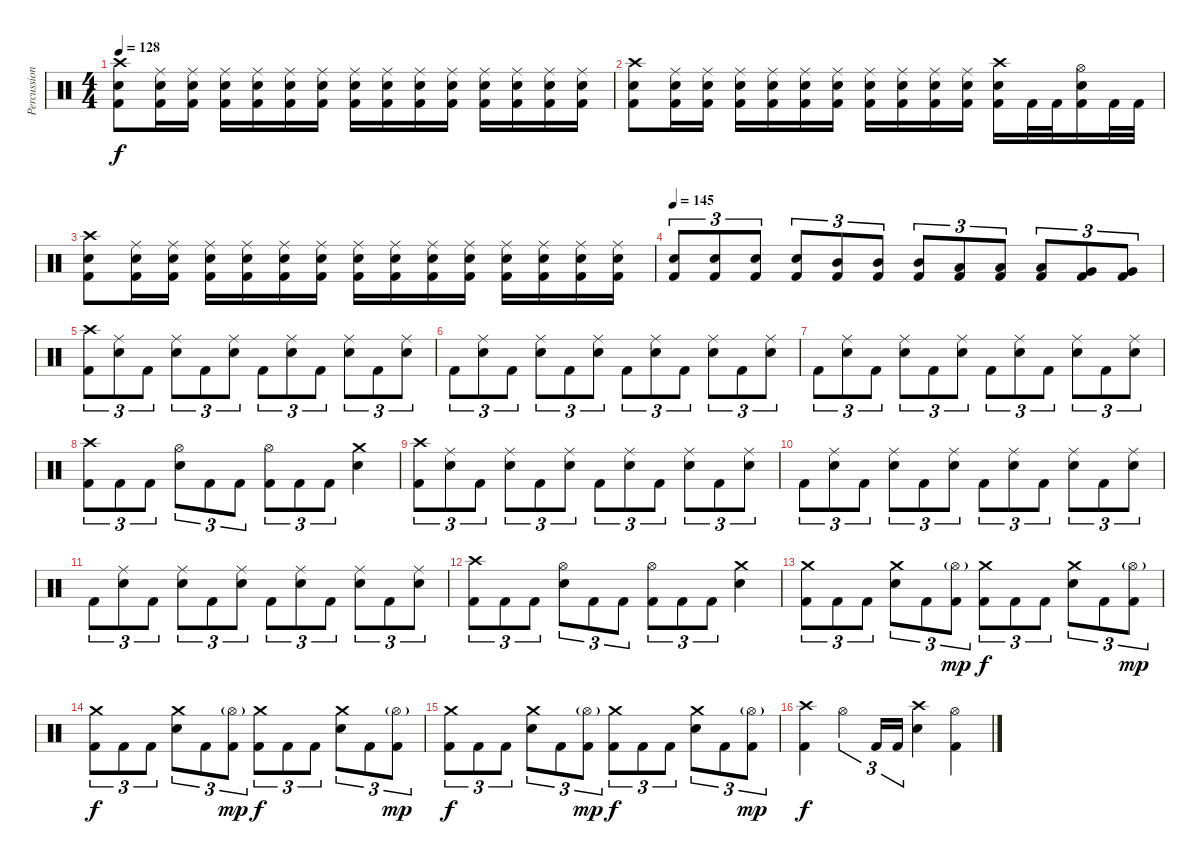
\track ("Percussion" "Percussion") {instrument percussion}
\staff {score}
\articulation defaults
\ts (4 4)
\tempo 128
\clef neutral
\ks c
("Crash high (hit)" "Electric Snare (hit)" "Kick (hit) 2").8{dy f} ("Ride (middle)" "Electric Snare (hit)" "Kick (hit) 2").16 ("Ride (middle)" "Electric Snare (hit)" "Kick (hit) 2").16 ("Ride (middle)" "Electric Snare (hit)" "Kick (hit) 2").16 ("Ride (middle)" "Electric Snare (hit)" "Kick (hit) 2").16 ("Ride (middle)" "Electric Snare (hit)" "Kick (hit) 2").16 ("Ride (middle)" "Electric Snare (hit)" "Kick (hit) 2").16 ("Ride (middle)" "Electric Snare (hit)" "Kick (hit) 2").16 ("Ride (middle)" "Electric Snare (hit)" "Kick (hit) 2").16 ("Ride (middle)" "Electric Snare (hit)" "Kick (hit) 2").16 ("Ride (middle)" "Electric Snare (hit)" "Kick (hit) 2").16 ("Ride (middle)" "Electric Snare (hit)" "Kick (hit) 2").16 ("Ride (middle)" "Electric Snare (hit)" "Kick (hit) 2").16 ("Ride (middle)" "Electric Snare (hit)" "Kick (hit) 2").16 ("Ride (middle)" "Electric Snare (hit)" "Kick (hit) 2").16 |
("Crash high (hit)" "Electric Snare (hit)" "Kick (hit) 2").8 ("Ride (middle)" "Electric Snare (hit)" "Kick (hit) 2").16 ("Ride (middle)" "Electric Snare (hit)" "Kick (hit) 2").16 ("Ride (middle)" "Electric Snare (hit)" "Kick (hit) 2").16 ("Ride (middle)" "Electric Snare (hit)" "Kick (hit) 2").16 ("Ride (middle)" "Electric Snare (hit)" "Kick (hit) 2").16 ("Ride (middle)" "Electric Snare (hit)" "Kick (hit) 2").16 ("Ride (middle)" "Electric Snare (hit)" "Kick (hit) 2").16 ("Ride (middle)" "Electric Snare (hit)" "Kick (hit) 2").16 ("Ride (middle)" "Electric Snare (hit)" "Kick (hit) 2").16 ("Ride (middle)" "Electric Snare (hit)" "Kick (hit) 2").16 ("Crash high (hit)" "Electric Snare (hit)" "Kick (hit) 2").16 "Kick (hit) 2".32 "Kick (hit) 2".32 ("Hi-Hat (open)" "Electric Snare (hit)" "Kick (hit) 2").16 "Kick (hit) 2".32 "Kick (hit) 2".32 |
("Crash high (hit)" "Electric Snare (hit)" "Kick (hit) 2").8 ("Ride (middle)" "Electric Snare (hit)" "Kick (hit) 2").16 ("Ride (middle)" "Electric Snare (hit)" "Kick (hit) 2").16 ("Ride (middle)" "Electric Snare (hit)" "Kick (hit) 2").16 ("Ride (middle)" "Electric Snare (hit)" "Kick (hit) 2").16 ("Ride (middle)" "Electric Snare (hit)" "Kick (hit) 2").16 ("Ride (middle)" "Electric Snare (hit)" "Kick (hit) 2").16 ("Ride (middle)" "Electric Snare (hit)" "Kick (hit) 2").16 ("Ride (middle)" "Electric Snare (hit)" "Kick (hit) 2").16 ("Ride (middle)" "Electric Snare (hit)" "Kick (hit) 2").16 ("Ride (middle)" "Electric Snare (hit)" "Kick (hit) 2").16 ("Ride (middle)" "Electric Snare (hit)" "Kick (hit) 2").16 ("Ride (middle)" "Electric Snare (hit)" "Kick (hit) 2").16 ("Ride (middle)" "Electric Snare (hit)" "Kick (hit) 2").16 ("Ride (middle)" "Electric Snare (hit)" "Kick (hit) 2").16 |
\tempo 145
("Electric Snare (hit)" "Kick (hit) 2").8{tu (3 2)} ("Electric Snare (hit)" "Kick (hit) 2").8{tu (3 2)} ("Electric Snare (hit)" "Kick (hit) 2").8{tu (3 2)} ("Electric Snare (hit)" "Kick (hit) 2").8{tu (3 2)} ("Mid Tom (hit)" "Kick (hit) 2").8{tu (3 2)} ("Mid Tom (hit)" "Kick (hit) 2").8{tu (3 2)} ("Mid Tom (hit)" "Kick (hit) 2").8{tu (3 2)} ("Low Tom (hit)" "Kick (hit) 2").8{tu (3 2)} ("Low Tom (hit)" "Kick (hit) 2").8{tu (3 2)} ("Low Tom (hit)" "Kick (hit) 2").8{tu (3 2)} ("Very Low Tom (hit)" "Kick (hit) 2").8{tu (3 2)} ("Very Low Tom (hit)" "Kick (hit) 2").8{tu (3 2)} |
("Crash high (hit)" "Kick (hit) 2").8{tu (3 2)} ("Ride (middle)" "Electric Snare (hit)").8{tu (3 2)} "Kick (hit) 2".8{tu (3 2)} ("Ride (middle)" "Electric Snare (hit)").8{tu (3 2)} "Kick (hit) 2".8{tu (3 2)} ("Ride (middle)" "Electric Snare (hit)").8{tu (3 2)} "Kick (hit) 2".8{tu (3 2)} ("Ride (middle)" "Electric Snare (hit)").8{tu (3 2)} "Kick (hit) 2".8{tu (3 2)} ("Ride (middle)" "Electric Snare (hit)").8{tu (3 2)} "Kick (hit) 2".8{tu (3 2)} ("Ride (middle)" "Electric Snare (hit)").8{tu (3 2)} |
"Kick (hit) 2".8{tu (3 2)} ("Ride (middle)" "Electric Snare (hit)").8{tu (3 2)} "Kick (hit) 2".8{tu (3 2)} ("Ride (middle)" "Electric Snare (hit)").8{tu (3 2)} "Kick (hit) 2".8{tu (3 2)} ("Ride (middle)" "Electric Snare (hit)").8{tu (3 2)} "Kick (hit) 2".8{tu (3 2)} ("Ride (middle)" "Electric Snare (hit)").8{tu (3 2)} "Kick (hit) 2".8{tu (3 2)} ("Ride (middle)" "Electric Snare (hit)").8{tu (3 2)} "Kick (hit) 2".8{tu (3 2)} ("Ride (middle)" "Electric Snare (hit)").8{tu (3 2)} |
"Kick (hit) 2".8{tu (3 2)} ("Ride (middle)" "Electric Snare (hit)").8{tu (3 2)} "Kick (hit) 2".8{tu (3 2)} ("Ride (middle)" "Electric Snare (hit)").8{tu (3 2)} "Kick (hit) 2".8{tu (3 2)} ("Ride (middle)" "Electric Snare (hit)").8{tu (3 2)} "Kick (hit) 2".8{tu (3 2)} ("Ride (middle)" "Electric Snare (hit)").8{tu (3 2)} "Kick (hit) 2".8{tu (3 2)} ("Ride (middle)" "Electric Snare (hit)").8{tu (3 2)} "Kick (hit) 2".8{tu (3 2)} ("Ride (middle)" "Electric Snare (hit)").8{tu (3 2)} |
("Crash high (hit)" "Kick (hit) 2").8{tu (3 2)} "Kick (hit) 2".8{tu (3 2)} "Kick (hit) 2".8{tu (3 2)} ("Hi-Hat (open)" "Electric Snare (hit)").8{tu (3 2)} "Kick (hit) 2".8{tu (3 2)} "Kick (hit) 2".8{tu (3 2)} ("Hi-Hat (open)" "Kick (hit) 2").8{tu (3 2)} "Kick (hit) 2".8{tu (3 2)} "Kick (hit) 2".8{tu (3 2)} ("Crash medium (hit)" "Electric Snare (hit)").4 |
("Crash high (hit)" "Kick (hit) 2").8{tu (3 2)} ("Ride (middle)" "Electric Snare (hit)").8{tu (3 2)} "Kick (hit) 2".8{tu (3 2)} ("Ride (middle)" "Electric Snare (hit)").8{tu (3 2)} "Kick (hit) 2".8{tu (3 2)} ("Ride (middle)" "Electric Snare (hit)").8{tu (3 2)} "Kick (hit) 2".8{tu (3 2)} ("Ride (middle)" "Electric Snare (hit)").8{tu (3 2)} "Kick (hit) 2".8{tu (3 2)} ("Ride (middle)" "Electric Snare (hit)").8{tu (3 2)} "Kick (hit) 2".8{tu (3 2)} ("Ride (middle)" "Electric Snare (hit)").8{tu (3 2)} |
"Kick (hit) 2".8{tu (3 2)} ("Ride (middle)" "Electric Snare (hit)").8{tu (3 2)} "Kick (hit) 2".8{tu (3 2)} ("Ride (middle)" "Electric Snare (hit)").8{tu (3 2)} "Kick (hit) 2".8{tu (3 2)} ("Ride (middle)" "Electric Snare (hit)").8{tu (3 2)} "Kick (hit) 2".8{tu (3 2)} ("Ride (middle)" "Electric Snare (hit)").8{tu (3 2)} "Kick (hit) 2".8{tu (3 2)} ("Ride (middle)" "Electric Snare (hit)").8{tu (3 2)} "Kick (hit) 2".8{tu (3 2)} ("Ride (middle)" "Electric Snare (hit)").8{tu (3 2)} |
"Kick (hit) 2".8{tu (3 2)} ("Ride (middle)" "Electric Snare (hit)").8{tu (3 2)} "Kick (hit) 2".8{tu (3 2)} ("Ride (middle)" "Electric Snare (hit)").8{tu (3 2)} "Kick (hit) 2".8{tu (3 2)} ("Ride (middle)" "Electric Snare (hit)").8{tu (3 2)} "Kick (hit) 2".8{tu (3 2)} ("Ride (middle)" "Electric Snare (hit)").8{tu (3 2)} "Kick (hit) 2".8{tu (3 2)} ("Ride (middle)" "Electric Snare (hit)").8{tu (3 2)} "Kick (hit) 2".8{tu (3 2)} ("Ride (middle)" "Electric Snare (hit)").8{tu (3 2)} |
("Crash high (hit)" "Kick (hit) 2").8{tu (3 2)} "Kick (hit) 2".8{tu (3 2)} "Kick (hit) 2".8{tu (3 2)} ("Hi-Hat (open)" "Electric Snare (hit)").8{tu (3 2)} "Kick (hit) 2".8{tu (3 2)} "Kick (hit) 2".8{tu (3 2)} ("Hi-Hat (open)" "Kick (hit) 2").8{tu (3 2)} "Kick (hit) 2".8{tu (3 2)} "Kick (hit) 2".8{tu (3 2)} ("Crash medium (hit)" "Electric Snare (hit)").4 |
("Crash medium (hit)" "Kick (hit) 2").8{tu (3 2)} "Kick (hit) 2".8{tu (3 2)} "Kick (hit) 2".8{tu (3 2)} ("Crash medium (hit)" "Electric Snare (hit)").8{tu (3 2)} "Kick (hit) 2".8{tu (3 2)} ("Hi-Hat (open)"{g} "Kick (hit) 2").8{tu (3 2) dy mp} ("Crash medium (hit)" "Kick (hit) 2").8{tu (3 2) dy f} "Kick (hit) 2".8{tu (3 2)} "Kick (hit) 2".8{tu (3 2)} ("Crash medium (hit)" "Electric Snare (hit)").8{tu (3 2)} "Kick (hit) 2".8{tu (3 2)} ("Hi-Hat (open)"{g} "Kick (hit) 2").8{tu (3 2) dy mp} |
("Crash medium (hit)" "Kick (hit) 2").8{tu (3 2) dy f} "Kick (hit) 2".8{tu (3 2)} "Kick (hit) 2".8{tu (3 2)} ("Crash medium (hit)" "Electric Snare (hit)").8{tu (3 2)} "Kick (hit) 2".8{tu (3 2)} ("Hi-Hat (open)"{g} "Kick (hit) 2").8{tu (3 2) dy mp} ("Crash medium (hit)" "Kick (hit) 2").8{tu (3 2) dy f} "Kick (hit) 2".8{tu (3 2)} "Kick (hit) 2".8{tu (3 2)} ("Crash medium (hit)" "Electric Snare (hit)").8{tu (3 2)} "Kick (hit) 2".8{tu (3 2)} ("Hi-Hat (open)"{g} "Kick (hit) 2").8{tu (3 2) dy mp} |
("Crash medium (hit)" "Kick (hit) 2").8{tu (3 2) dy f} "Kick (hit) 2".8{tu (3 2)} "Kick (hit) 2".8{tu (3 2)} ("Crash medium (hit)" "Electric Snare (hit)").8{tu (3 2)} "Kick (hit) 2".8{tu (3 2)} ("Hi-Hat (open)"{g} "Kick (hit) 2").8{tu (3 2) dy mp} ("Crash medium (hit)" "Kick (hit) 2").8{tu (3 2) dy f} "Kick (hit) 2".8{tu (3 2)} "Kick (hit) 2".8{tu (3 2)} ("Crash medium (hit)" "Electric Snare (hit)").8{tu (3 2)} "Kick (hit) 2".8{tu (3 2)} ("Hi-Hat (open)"{g} "Kick (hit) 2").8{tu (3 2) dy mp} |
("Crash high (hit)" "Kick (hit) 2").4{dy f} "Hi-Hat (open)".4{tu (3 2)} "Kick (hit) 2".16{tu (3 2)} "Kick (hit) 2".16{tu (3 2)} ("Crash high (hit)" "Electric Snare (hit)").4 ("Hi-Hat (open)" "Kick (hit) 2").4
